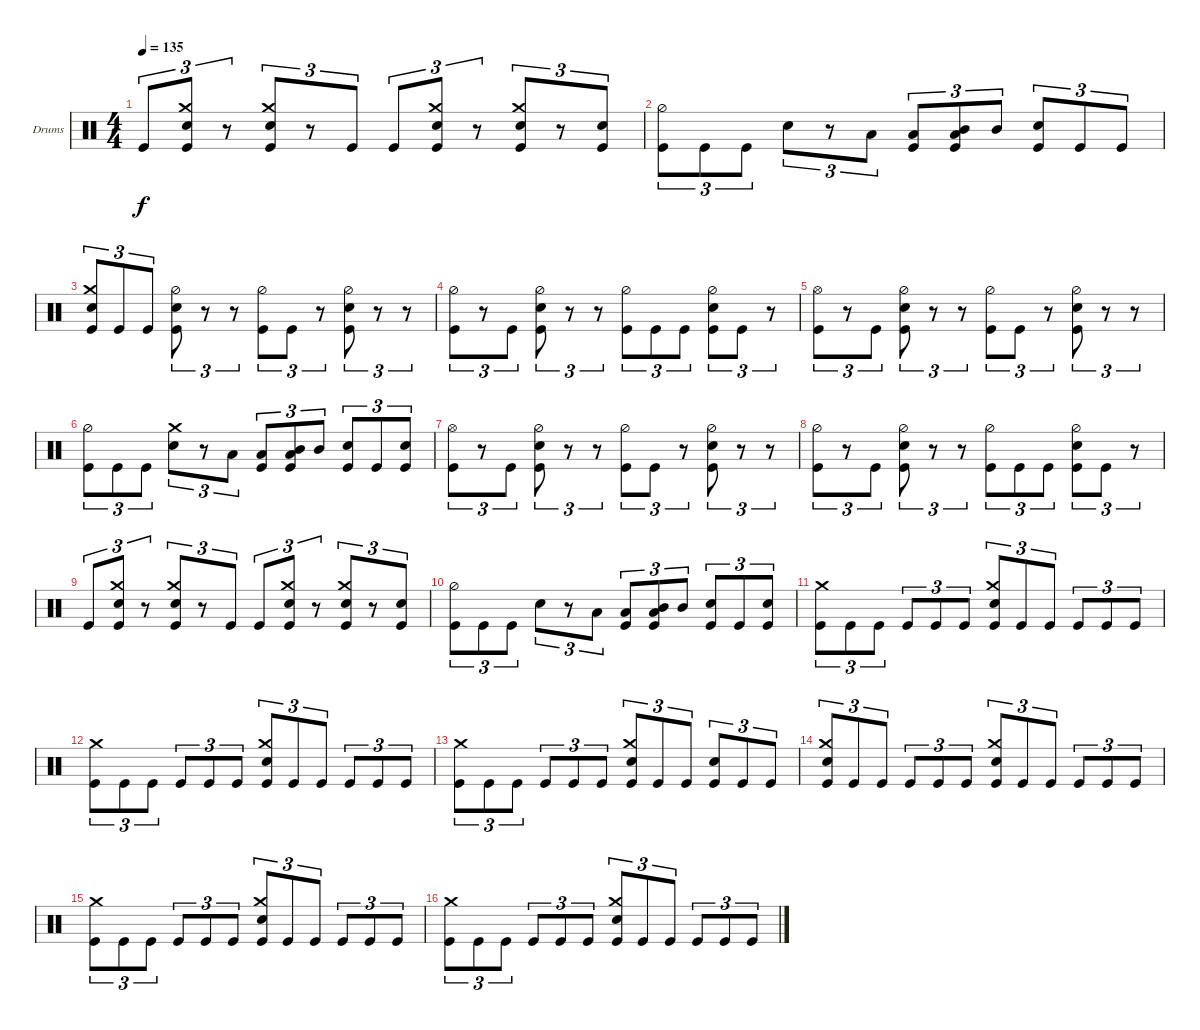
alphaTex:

\defaultSystemsLayout 4
\bracketExtendMode groupsimilarinstruments
\firstSystemTrackNameOrientation horizontal
\otherSystemsTrackNameOrientation horizontal
\track ("Drumkit" "Drums") {instrument percussion}
\staff {score}
\articulation defaults
\ts (4 4)
\tempo 135
\clef neutral
\ks c "Kick (hit)".8{tu (3 2) dy f}
("Kick (hit)" "Crash medium (hit)" "Snare (hit) 2").8{tu (3 2)} r.8{tu (3 2)} ("Kick (hit)" "Crash medium (hit)" "Snare (hit) 2").8{tu (3 2)} r.8{tu (3 2)} "Kick (hit)".8{tu (3 2)} "Kick (hit)".8{tu (3 2)} ("Kick (hit)" "Crash medium (hit)" "Snare (hit) 2").8{tu (3 2)} r.8{tu (3 2)} ("Kick (hit)" "Crash medium (hit)" "Snare (hit) 2").8{tu (3 2)} r.8{tu (3 2)} ("Kick (hit)" "Snare (hit) 2").8{tu (3 2)} |
("Kick (hit)" "Hi-Hat (half)").8{tu (3 2)} "Kick (hit)".8{tu (3 2)} "Kick (hit)".8{tu (3 2)} "Snare (hit) 2".8{tu (3 2)} r.8{tu (3 2)} "Low Tom (hit)".8{tu (3 2)} ("Kick (hit)" "Low Tom (hit)").8{tu (3 2)} ("Kick (hit)" "Low Tom (hit)" "Mid Tom (hit)").8{tu (3 2)} "Mid Tom (hit)".8{tu (3 2)} ("Kick (hit)" "Snare (hit) 2").8{tu (3 2)} "Kick (hit)".8{tu (3 2)} "Kick (hit)".8{tu (3 2)} |
("Snare (hit) 2" "Crash medium (hit)" "Kick (hit)").8{tu (3 2)} "Kick (hit)".8{tu (3 2)} "Kick (hit)".8{tu (3 2)} ("Kick (hit)" "Snare (hit) 2" "Hi-Hat (half)").8{tu (3 2)} r.8{tu (3 2)} r.8{tu (3 2)} ("Kick (hit)" "Hi-Hat (half)").8{tu (3 2)} "Kick (hit)".8{tu (3 2)} r.8{tu (3 2)} ("Kick (hit)" "Snare (hit) 2" "Hi-Hat (half)").8{tu (3 2)} r.8{tu (3 2)} r.8{tu (3 2)} |
("Kick (hit)" "Hi-Hat (half)").8{tu (3 2)} r.8{tu (3 2)} "Kick (hit)".8{tu (3 2)} ("Kick (hit)" "Snare (hit) 2" "Hi-Hat (half)").8{tu (3 2)} r.8{tu (3 2)} r.8{tu (3 2)} ("Kick (hit)" "Hi-Hat (half)").8{tu (3 2)} "Kick (hit)".8{tu (3 2)} "Kick (hit)".8{tu (3 2)} ("Kick (hit)" "Snare (hit) 2" "Hi-Hat (half)").8{tu (3 2)} "Kick (hit)".8{tu (3 2)} r.8{tu (3 2)} |
("Kick (hit)" "Hi-Hat (open)").8{tu (3 2)} r.8{tu (3 2)} "Kick (hit)".8{tu (3 2)} ("Kick (hit)" "Snare (hit) 2" "Hi-Hat (half)").8{tu (3 2)} r.8{tu (3 2)} r.8{tu (3 2)} ("Kick (hit)" "Hi-Hat (half)").8{tu (3 2)} "Kick (hit)".8{tu (3 2)} r.8{tu (3 2)} ("Kick (hit)" "Snare (hit) 2" "Hi-Hat (half)").8{tu (3 2)} r.8{tu (3 2)} r.8{tu (3 2)} |
("Kick (hit)" "Hi-Hat (half)").8{tu (3 2)} "Kick (hit)".8{tu (3 2)} "Kick (hit)".8{tu (3 2)} ("Snare (hit) 2" "Crash medium (hit)").8{tu (3 2)} r.8{tu (3 2)} "Low Tom (hit)".8{tu (3 2)} ("Kick (hit)" "Low Tom (hit)").8{tu (3 2)} ("Kick (hit)" "Low Tom (hit)" "Mid Tom (hit)").8{tu (3 2)} "Mid Tom (hit)".8{tu (3 2)} ("Kick (hit)" "Snare (hit) 2").8{tu (3 2)} "Kick (hit)".8{tu (3 2)} ("Kick (hit)" "Snare (hit) 2").8{tu (3 2)} |
("Kick (hit)" "Hi-Hat (open)").8{tu (3 2)} r.8{tu (3 2)} "Kick (hit)".8{tu (3 2)} ("Kick (hit)" "Snare (hit) 2" "Hi-Hat (half)").8{tu (3 2)} r.8{tu (3 2)} r.8{tu (3 2)} ("Kick (hit)" "Hi-Hat (half)").8{tu (3 2)} "Kick (hit)".8{tu (3 2)} r.8{tu (3 2)} ("Kick (hit)" "Snare (hit) 2" "Hi-Hat (half)").8{tu (3 2)} r.8{tu (3 2)} r.8{tu (3 2)} |
("Kick (hit)" "Hi-Hat (half)").8{tu (3 2)} r.8{tu (3 2)} "Kick (hit)".8{tu (3 2)} ("Kick (hit)" "Snare (hit) 2" "Hi-Hat (half)").8{tu (3 2)} r.8{tu (3 2)} r.8{tu (3 2)} ("Kick (hit)" "Hi-Hat (half)").8{tu (3 2)} "Kick (hit)".8{tu (3 2)} "Kick (hit)".8{tu (3 2)} ("Kick (hit)" "Snare (hit) 2" "Hi-Hat (half)").8{tu (3 2)} "Kick (hit)".8{tu (3 2)} r.8{tu (3 2)} |
"Kick (hit)".8{tu (3 2)} ("Kick (hit)" "Crash medium (hit)" "Snare (hit) 2").8{tu (3 2)} r.8{tu (3 2)} ("Kick (hit)" "Crash medium (hit)" "Snare (hit) 2").8{tu (3 2)} r.8{tu (3 2)} "Kick (hit)".8{tu (3 2)} "Kick (hit)".8{tu (3 2)} ("Kick (hit)" "Crash medium (hit)" "Snare (hit) 2").8{tu (3 2)} r.8{tu (3 2)} ("Kick (hit)" "Crash medium (hit)" "Snare (hit) 2").8{tu (3 2)} r.8{tu (3 2)} ("Kick (hit)" "Snare (hit) 2").8{tu (3 2)} |
("Kick (hit)" "Hi-Hat (half)").8{tu (3 2)} "Kick (hit)".8{tu (3 2)} "Kick (hit)".8{tu (3 2)} "Snare (hit) 2".8{tu (3 2)} r.8{tu (3 2)} "Low Tom (hit)".8{tu (3 2)} ("Kick (hit)" "Low Tom (hit)").8{tu (3 2)} ("Kick (hit)" "Low Tom (hit)" "Mid Tom (hit)").8{tu (3 2)} "Mid Tom (hit)".8{tu (3 2)} ("Kick (hit)" "Snare (hit) 2").8{tu (3 2)} "Kick (hit)".8{tu (3 2)} ("Kick (hit)" "Snare (hit) 2").8{tu (3 2)} |
("Kick (hit)" "Crash medium (hit)").8{tu (3 2)} "Kick (hit)".8{tu (3 2)} "Kick (hit)".8{tu (3 2)} "Kick (hit)".8{tu (3 2)} "Kick (hit)".8{tu (3 2)} "Kick (hit)".8{tu (3 2)} ("Kick (hit)" "Crash medium (hit)" "Snare (hit) 2").8{tu (3 2)} "Kick (hit)".8{tu (3 2)} "Kick (hit)".8{tu (3 2)} "Kick (hit)".8{tu (3 2)} "Kick (hit)".8{tu (3 2)} "Kick (hit)".8{tu (3 2)} |
("Kick (hit)" "Crash medium (hit)").8{tu (3 2)} "Kick (hit)".8{tu (3 2)} "Kick (hit)".8{tu (3 2)} "Kick (hit)".8{tu (3 2)} "Kick (hit)".8{tu (3 2)} "Kick (hit)".8{tu (3 2)} ("Kick (hit)" "Crash medium (hit)" "Snare (hit) 2").8{tu (3 2)} "Kick (hit)".8{tu (3 2)} "Kick (hit)".8{tu (3 2)} "Kick (hit)".8{tu (3 2)} "Kick (hit)".8{tu (3 2)} "Kick (hit)".8{tu (3 2)} |
("Kick (hit)" "Crash medium (hit)").8{tu (3 2)} "Kick (hit)".8{tu (3 2)} "Kick (hit)".8{tu (3 2)} "Kick (hit)".8{tu (3 2)} "Kick (hit)".8{tu (3 2)} "Kick (hit)".8{tu (3 2)} ("Kick (hit)" "Crash medium (hit)" "Snare (hit) 2").8{tu (3 2)} "Kick (hit)".8{tu (3 2)} "Kick (hit)".8{tu (3 2)} ("Kick (hit)" "Snare (hit) 2").8{tu (3 2)} "Kick (hit)".8{tu (3 2)} "Kick (hit)".8{tu (3 2)} |
("Kick (hit)" "Crash medium (hit)" "Snare (hit) 2").8{tu (3 2)} "Kick (hit)".8{tu (3 2)} "Kick (hit)".8{tu (3 2)} "Kick (hit)".8{tu (3 2)} "Kick (hit)".8{tu (3 2)} "Kick (hit)".8{tu (3 2)} ("Kick (hit)" "Crash medium (hit)" "Snare (hit) 2").8{tu (3 2)} "Kick (hit)".8{tu (3 2)} "Kick (hit)".8{tu (3 2)} "Kick (hit)".8{tu (3 2)} "Kick (hit)".8{tu (3 2)} "Kick (hit)".8{tu (3 2)} |
("Kick (hit)" "Crash medium (hit)").8{tu (3 2)} "Kick (hit)".8{tu (3 2)} "Kick (hit)".8{tu (3 2)} "Kick (hit)".8{tu (3 2)} "Kick (hit)".8{tu (3 2)} "Kick (hit)".8{tu (3 2)} ("Kick (hit)" "Crash medium (hit)" "Snare (hit) 2").8{tu (3 2)} "Kick (hit)".8{tu (3 2)} "Kick (hit)".8{tu (3 2)} "Kick (hit)".8{tu (3 2)} "Kick (hit)".8{tu (3 2)} "Kick (hit)".8{tu (3 2)} |
("Kick (hit)" "Crash medium (hit)").8{tu (3 2)} "Kick (hit)".8{tu (3 2)} "Kick (hit)".8{tu (3 2)} "Kick (hit)".8{tu (3 2)} "Kick (hit)".8{tu (3 2)} "Kick (hit)".8{tu (3 2)} ("Kick (hit)" "Crash medium (hit)" "Snare (hit) 2").8{tu (3 2)} "Kick (hit)".8{tu (3 2)} "Kick (hit)".8{tu (3 2)} "Kick (hit)".8{tu (3 2)} "Kick (hit)".8{tu (3 2)} "Kick (hit)".8{tu (3 2)}
